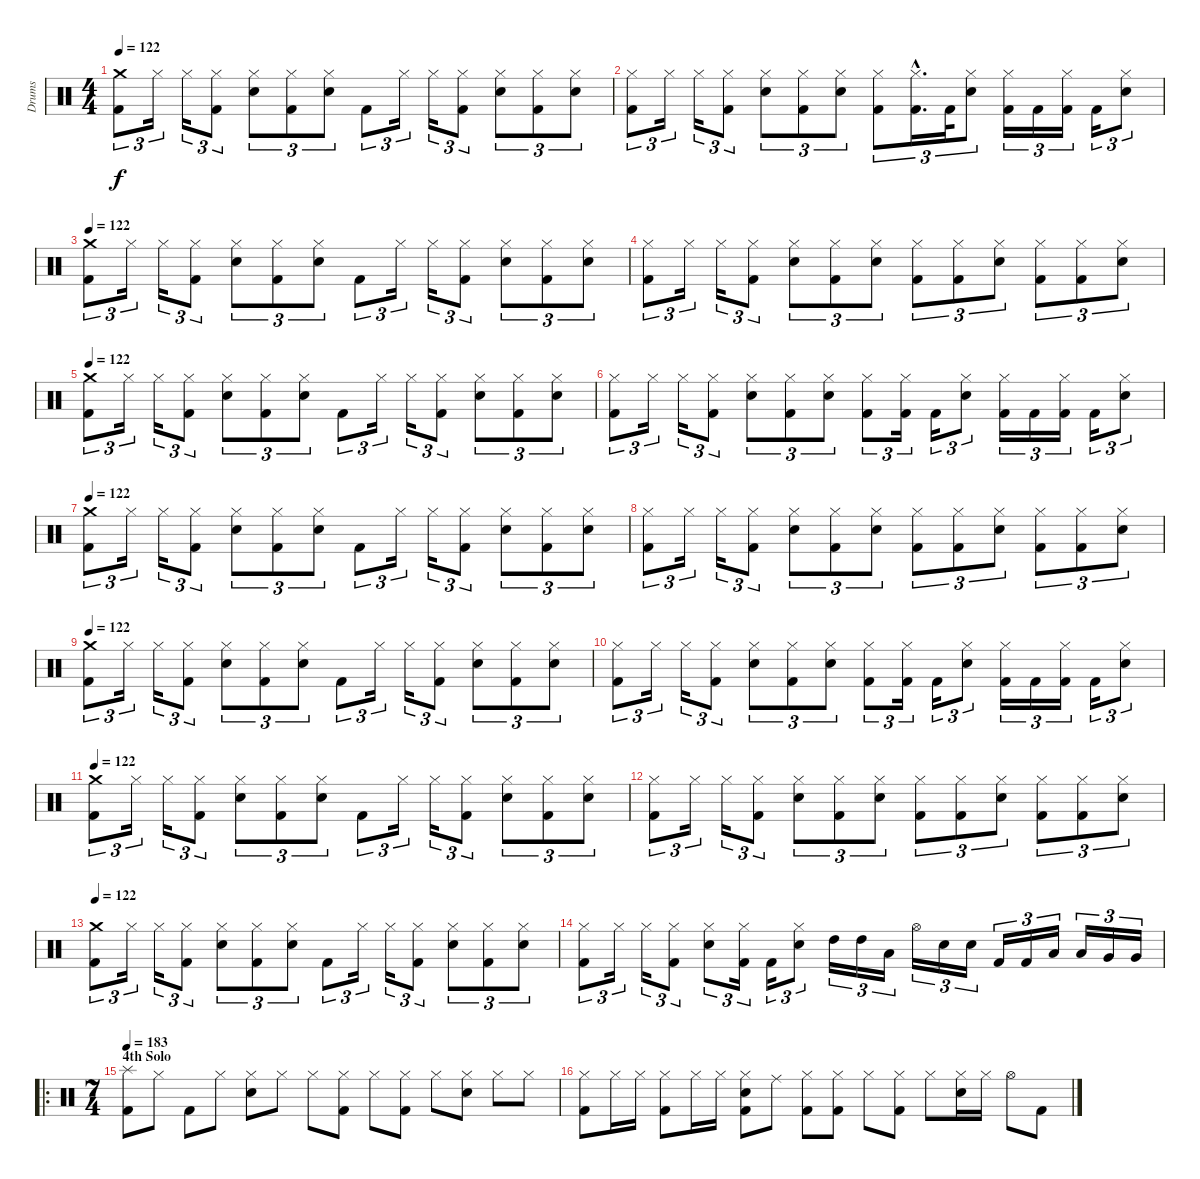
\track ("Drums" "Drums") {instrument percussion}
\staff {score}
\articulation defaults
\ts (4 4)
\tempo 122
\clef neutral
\ks c
("Kick (hit) 2" "Crash medium (hit)").8{tu (3 2) dy f} "Hi-Hat (closed)".16{tu (3 2)} "Hi-Hat (closed)".16{tu (3 2)} ("Hi-Hat (closed)" "Kick (hit) 2").8{tu (3 2)} ("Hi-Hat (closed)" "Electric Snare (hit)").8{tu (3 2)} ("Hi-Hat (closed)" "Kick (hit) 2").8{tu (3 2)} ("Hi-Hat (closed)" "Electric Snare (hit)").8{tu (3 2)} "Kick (hit) 2".8{tu (3 2)} "Hi-Hat (closed)".16{tu (3 2)} "Hi-Hat (closed)".16{tu (3 2)} ("Hi-Hat (closed)" "Kick (hit) 2").8{tu (3 2)} ("Hi-Hat (closed)" "Electric Snare (hit)").8{tu (3 2)} ("Hi-Hat (closed)" "Kick (hit) 2").8{tu (3 2)} ("Hi-Hat (closed)" "Electric Snare (hit)").8{tu (3 2)} |
("Hi-Hat (closed)" "Kick (hit) 2").8{tu (3 2)} "Hi-Hat (closed)".16{tu (3 2)} "Hi-Hat (closed)".16{tu (3 2)} ("Hi-Hat (closed)" "Kick (hit) 2").8{tu (3 2)} ("Hi-Hat (closed)" "Electric Snare (hit)").8{tu (3 2)} ("Hi-Hat (closed)" "Kick (hit) 2").8{tu (3 2)} ("Hi-Hat (closed)" "Electric Snare (hit)").8{tu (3 2)} ("Hi-Hat (closed)" "Kick (hit) 2").8{tu (3 2)} ("Hi-Hat (closed)"{hac} "Kick (hit) 2"{hac}).16{d tu (3 2)} "Kick (hit) 2".32{tu (3 2)} ("Hi-Hat (closed)" "Electric Snare (hit)").8{tu (3 2)} ("Hi-Hat (closed)" "Kick (hit) 2").16{tu (3 2)} "Kick (hit) 2".16{tu (3 2)} ("Hi-Hat (closed)" "Kick (hit) 2").16{tu (3 2)} "Kick (hit) 2".16{tu (3 2)} ("Hi-Hat (closed)" "Electric Snare (hit)").8{tu (3 2)} |
\tempo 122
("Kick (hit) 2" "Crash medium (hit)").8{tu (3 2)} "Hi-Hat (closed)".16{tu (3 2)} "Hi-Hat (closed)".16{tu (3 2)} ("Hi-Hat (closed)" "Kick (hit) 2").8{tu (3 2)} ("Hi-Hat (closed)" "Electric Snare (hit)").8{tu (3 2)} ("Hi-Hat (closed)" "Kick (hit) 2").8{tu (3 2)} ("Hi-Hat (closed)" "Electric Snare (hit)").8{tu (3 2)} "Kick (hit) 2".8{tu (3 2)} "Hi-Hat (closed)".16{tu (3 2)} "Hi-Hat (closed)".16{tu (3 2)} ("Hi-Hat (closed)" "Kick (hit) 2").8{tu (3 2)} ("Hi-Hat (closed)" "Electric Snare (hit)").8{tu (3 2)} ("Hi-Hat (closed)" "Kick (hit) 2").8{tu (3 2)} ("Hi-Hat (closed)" "Electric Snare (hit)").8{tu (3 2)} |
("Hi-Hat (closed)" "Kick (hit) 2").8{tu (3 2)} "Hi-Hat (closed)".16{tu (3 2)} "Hi-Hat (closed)".16{tu (3 2)} ("Hi-Hat (closed)" "Kick (hit) 2").8{tu (3 2)} ("Hi-Hat (closed)" "Electric Snare (hit)").8{tu (3 2)} ("Hi-Hat (closed)" "Kick (hit) 2").8{tu (3 2)} ("Hi-Hat (closed)" "Electric Snare (hit)").8{tu (3 2)} ("Hi-Hat (closed)" "Kick (hit) 2").8{tu (3 2)} ("Hi-Hat (closed)" "Kick (hit) 2").8{tu (3 2)} ("Hi-Hat (closed)" "Electric Snare (hit)").8{tu (3 2)} ("Hi-Hat (closed)" "Kick (hit) 2").8{tu (3 2)} ("Hi-Hat (closed)" "Kick (hit) 2").8{tu (3 2)} ("Hi-Hat (closed)" "Electric Snare (hit)").8{tu (3 2)} |
\tempo 122
("Kick (hit) 2" "Crash medium (hit)").8{tu (3 2)} "Hi-Hat (closed)".16{tu (3 2)} "Hi-Hat (closed)".16{tu (3 2)} ("Hi-Hat (closed)" "Kick (hit) 2").8{tu (3 2)} ("Hi-Hat (closed)" "Electric Snare (hit)").8{tu (3 2)} ("Hi-Hat (closed)" "Kick (hit) 2").8{tu (3 2)} ("Hi-Hat (closed)" "Electric Snare (hit)").8{tu (3 2)} "Kick (hit) 2".8{tu (3 2)} "Hi-Hat (closed)".16{tu (3 2)} "Hi-Hat (closed)".16{tu (3 2)} ("Hi-Hat (closed)" "Kick (hit) 2").8{tu (3 2)} ("Hi-Hat (closed)" "Electric Snare (hit)").8{tu (3 2)} ("Hi-Hat (closed)" "Kick (hit) 2").8{tu (3 2)} ("Hi-Hat (closed)" "Electric Snare (hit)").8{tu (3 2)} |
("Hi-Hat (closed)" "Kick (hit) 2").8{tu (3 2)} "Hi-Hat (closed)".16{tu (3 2)} "Hi-Hat (closed)".16{tu (3 2)} ("Hi-Hat (closed)" "Kick (hit) 2").8{tu (3 2)} ("Hi-Hat (closed)" "Electric Snare (hit)").8{tu (3 2)} ("Hi-Hat (closed)" "Kick (hit) 2").8{tu (3 2)} ("Hi-Hat (closed)" "Electric Snare (hit)").8{tu (3 2)} ("Hi-Hat (closed)" "Kick (hit) 2").8{tu (3 2)} ("Hi-Hat (closed)" "Kick (hit) 2").16{tu (3 2)} "Kick (hit) 2".16{tu (3 2)} ("Hi-Hat (closed)" "Electric Snare (hit)").8{tu (3 2)} ("Hi-Hat (closed)" "Kick (hit) 2").16{tu (3 2)} "Kick (hit) 2".16{tu (3 2)} ("Hi-Hat (closed)" "Kick (hit) 2").16{tu (3 2)} "Kick (hit) 2".16{tu (3 2)} ("Hi-Hat (closed)" "Electric Snare (hit)").8{tu (3 2)} |
\tempo 122
("Kick (hit) 2" "Crash medium (hit)").8{tu (3 2)} "Hi-Hat (closed)".16{tu (3 2)} "Hi-Hat (closed)".16{tu (3 2)} ("Hi-Hat (closed)" "Kick (hit) 2").8{tu (3 2)} ("Hi-Hat (closed)" "Electric Snare (hit)").8{tu (3 2)} ("Hi-Hat (closed)" "Kick (hit) 2").8{tu (3 2)} ("Hi-Hat (closed)" "Electric Snare (hit)").8{tu (3 2)} "Kick (hit) 2".8{tu (3 2)} "Hi-Hat (closed)".16{tu (3 2)} "Hi-Hat (closed)".16{tu (3 2)} ("Hi-Hat (closed)" "Kick (hit) 2").8{tu (3 2)} ("Hi-Hat (closed)" "Electric Snare (hit)").8{tu (3 2)} ("Hi-Hat (closed)" "Kick (hit) 2").8{tu (3 2)} ("Hi-Hat (closed)" "Electric Snare (hit)").8{tu (3 2)} |
("Hi-Hat (closed)" "Kick (hit) 2").8{tu (3 2)} "Hi-Hat (closed)".16{tu (3 2)} "Hi-Hat (closed)".16{tu (3 2)} ("Hi-Hat (closed)" "Kick (hit) 2").8{tu (3 2)} ("Hi-Hat (closed)" "Electric Snare (hit)").8{tu (3 2)} ("Hi-Hat (closed)" "Kick (hit) 2").8{tu (3 2)} ("Hi-Hat (closed)" "Electric Snare (hit)").8{tu (3 2)} ("Hi-Hat (closed)" "Kick (hit) 2").8{tu (3 2)} ("Hi-Hat (closed)" "Kick (hit) 2").8{tu (3 2)} ("Hi-Hat (closed)" "Electric Snare (hit)").8{tu (3 2)} ("Hi-Hat (closed)" "Kick (hit) 2").8{tu (3 2)} ("Hi-Hat (closed)" "Kick (hit) 2").8{tu (3 2)} ("Hi-Hat (closed)" "Electric Snare (hit)").8{tu (3 2)} |
\tempo 122
("Kick (hit) 2" "Crash medium (hit)").8{tu (3 2)} "Hi-Hat (closed)".16{tu (3 2)} "Hi-Hat (closed)".16{tu (3 2)} ("Hi-Hat (closed)" "Kick (hit) 2").8{tu (3 2)} ("Hi-Hat (closed)" "Electric Snare (hit)").8{tu (3 2)} ("Hi-Hat (closed)" "Kick (hit) 2").8{tu (3 2)} ("Hi-Hat (closed)" "Electric Snare (hit)").8{tu (3 2)} "Kick (hit) 2".8{tu (3 2)} "Hi-Hat (closed)".16{tu (3 2)} "Hi-Hat (closed)".16{tu (3 2)} ("Hi-Hat (closed)" "Kick (hit) 2").8{tu (3 2)} ("Hi-Hat (closed)" "Electric Snare (hit)").8{tu (3 2)} ("Hi-Hat (closed)" "Kick (hit) 2").8{tu (3 2)} ("Hi-Hat (closed)" "Electric Snare (hit)").8{tu (3 2)} |
("Hi-Hat (closed)" "Kick (hit) 2").8{tu (3 2)} "Hi-Hat (closed)".16{tu (3 2)} "Hi-Hat (closed)".16{tu (3 2)} ("Hi-Hat (closed)" "Kick (hit) 2").8{tu (3 2)} ("Hi-Hat (closed)" "Electric Snare (hit)").8{tu (3 2)} ("Hi-Hat (closed)" "Kick (hit) 2").8{tu (3 2)} ("Hi-Hat (closed)" "Electric Snare (hit)").8{tu (3 2)} ("Hi-Hat (closed)" "Kick (hit) 2").8{tu (3 2)} ("Hi-Hat (closed)" "Kick (hit) 2").16{tu (3 2)} "Kick (hit) 2".16{tu (3 2)} ("Hi-Hat (closed)" "Electric Snare (hit)").8{tu (3 2)} ("Hi-Hat (closed)" "Kick (hit) 2").16{tu (3 2)} "Kick (hit) 2".16{tu (3 2)} ("Hi-Hat (closed)" "Kick (hit) 2").16{tu (3 2)} "Kick (hit) 2".16{tu (3 2)} ("Hi-Hat (closed)" "Electric Snare (hit)").8{tu (3 2)} |
\tempo 122
("Kick (hit) 2" "Crash medium (hit)").8{tu (3 2)} "Hi-Hat (closed)".16{tu (3 2)} "Hi-Hat (closed)".16{tu (3 2)} ("Hi-Hat (closed)" "Kick (hit) 2").8{tu (3 2)} ("Hi-Hat (closed)" "Electric Snare (hit)").8{tu (3 2)} ("Hi-Hat (closed)" "Kick (hit) 2").8{tu (3 2)} ("Hi-Hat (closed)" "Electric Snare (hit)").8{tu (3 2)} "Kick (hit) 2".8{tu (3 2)} "Hi-Hat (closed)".16{tu (3 2)} "Hi-Hat (closed)".16{tu (3 2)} ("Hi-Hat (closed)" "Kick (hit) 2").8{tu (3 2)} ("Hi-Hat (closed)" "Electric Snare (hit)").8{tu (3 2)} ("Hi-Hat (closed)" "Kick (hit) 2").8{tu (3 2)} ("Hi-Hat (closed)" "Electric Snare (hit)").8{tu (3 2)} |
("Hi-Hat (closed)" "Kick (hit) 2").8{tu (3 2)} "Hi-Hat (closed)".16{tu (3 2)} "Hi-Hat (closed)".16{tu (3 2)} ("Hi-Hat (closed)" "Kick (hit) 2").8{tu (3 2)} ("Hi-Hat (closed)" "Electric Snare (hit)").8{tu (3 2)} ("Hi-Hat (closed)" "Kick (hit) 2").8{tu (3 2)} ("Hi-Hat (closed)" "Electric Snare (hit)").8{tu (3 2)} ("Hi-Hat (closed)" "Kick (hit) 2").8{tu (3 2)} ("Hi-Hat (closed)" "Kick (hit) 2").8{tu (3 2)} ("Hi-Hat (closed)" "Electric Snare (hit)").8{tu (3 2)} ("Hi-Hat (closed)" "Kick (hit) 2").8{tu (3 2)} ("Hi-Hat (closed)" "Kick (hit) 2").8{tu (3 2)} ("Hi-Hat (closed)" "Electric Snare (hit)").8{tu (3 2)} |
\tempo 122
("Kick (hit) 2" "Crash medium (hit)").8{tu (3 2)} "Hi-Hat (closed)".16{tu (3 2)} "Hi-Hat (closed)".16{tu (3 2)} ("Hi-Hat (closed)" "Kick (hit) 2").8{tu (3 2)} ("Hi-Hat (closed)" "Electric Snare (hit)").8{tu (3 2)} ("Hi-Hat (closed)" "Kick (hit) 2").8{tu (3 2)} ("Hi-Hat (closed)" "Electric Snare (hit)").8{tu (3 2)} "Kick (hit) 2".8{tu (3 2)} "Hi-Hat (closed)".16{tu (3 2)} "Hi-Hat (closed)".16{tu (3 2)} ("Hi-Hat (closed)" "Kick (hit) 2").8{tu (3 2)} ("Hi-Hat (closed)" "Electric Snare (hit)").8{tu (3 2)} ("Hi-Hat (closed)" "Kick (hit) 2").8{tu (3 2)} ("Hi-Hat (closed)" "Electric Snare (hit)").8{tu (3 2)} |
("Hi-Hat (closed)" "Kick (hit) 2").8{tu (3 2)} "Hi-Hat (closed)".16{tu (3 2)} "Hi-Hat (closed)".16{tu (3 2)} ("Hi-Hat (closed)" "Kick (hit) 2").8{tu (3 2)} ("Hi-Hat (closed)" "Electric Snare (hit)").8{tu (3 2)} ("Hi-Hat (closed)" "Kick (hit) 2").16{tu (3 2)} "Kick (hit) 2".16{tu (3 2)} ("Hi-Hat (closed)" "Electric Snare (hit)").8{tu (3 2)} "High Tom (hit)".16{tu (3 2) balance 4} "High Tom (hit)".16{tu (3 2)} "Low Tom (hit)".16{tu (3 2)} "Hi-Hat (open)".16{tu (3 2)} "Electric Snare (hit)".16{tu (3 2) balance 8} "Electric Snare (hit)".16{tu (3 2)} "Kick (hit) 2".16{tu (3 2) balance 10} "Kick (hit) 2".16{tu (3 2)} "Low Tom (hit)".16{tu (3 2) balance 11} "Low Tom (hit)".16{tu (3 2)} "Very Low Tom (hit)".16{tu (3 2) balance 12} "Very Low Tom (hit)".16{tu (3 2)} |
\ro
\ts (7 4)
\section ("" "4th Solo")
\tempo 183
("Splash (hit)" "Kick (hit) 2").8 "Hi-Hat (closed)".8 "Kick (hit) 2".8 "Hi-Hat (closed)".8 ("Hi-Hat (closed)" "Electric Snare (hit)").8 "Hi-Hat (closed)".8 "Hi-Hat (closed)".8 ("Hi-Hat (closed)" "Kick (hit) 2").8 "Hi-Hat (closed)".8 ("Hi-Hat (closed)" "Kick (hit) 2").8 "Hi-Hat (closed)".8 ("Hi-Hat (closed)" "Electric Snare (hit)").8 "Hi-Hat (closed)".8 "Hi-Hat (closed)".8 |
("Hi-Hat (closed)" "Kick (hit) 2").8 "Hi-Hat (closed)".16 "Hi-Hat (closed)".16 ("Hi-Hat (closed)" "Kick (hit) 2").8 "Hi-Hat (closed)".16 "Hi-Hat (closed)".16 ("Hi-Hat (closed)" "Electric Snare (hit)" "Kick (hit) 2").8 "Ride (middle)".8 ("Hi-Hat (closed)" "Kick (hit) 2").8 ("Hi-Hat (closed)" "Kick (hit) 2").8 "Hi-Hat (closed)".8 ("Hi-Hat (closed)" "Kick (hit) 2").8 "Hi-Hat (closed)".8 ("Hi-Hat (closed)" "Electric Snare (hit)").16 "Hi-Hat (closed)".16 "Hi-Hat (open)".8 "Kick (hit) 2".8
